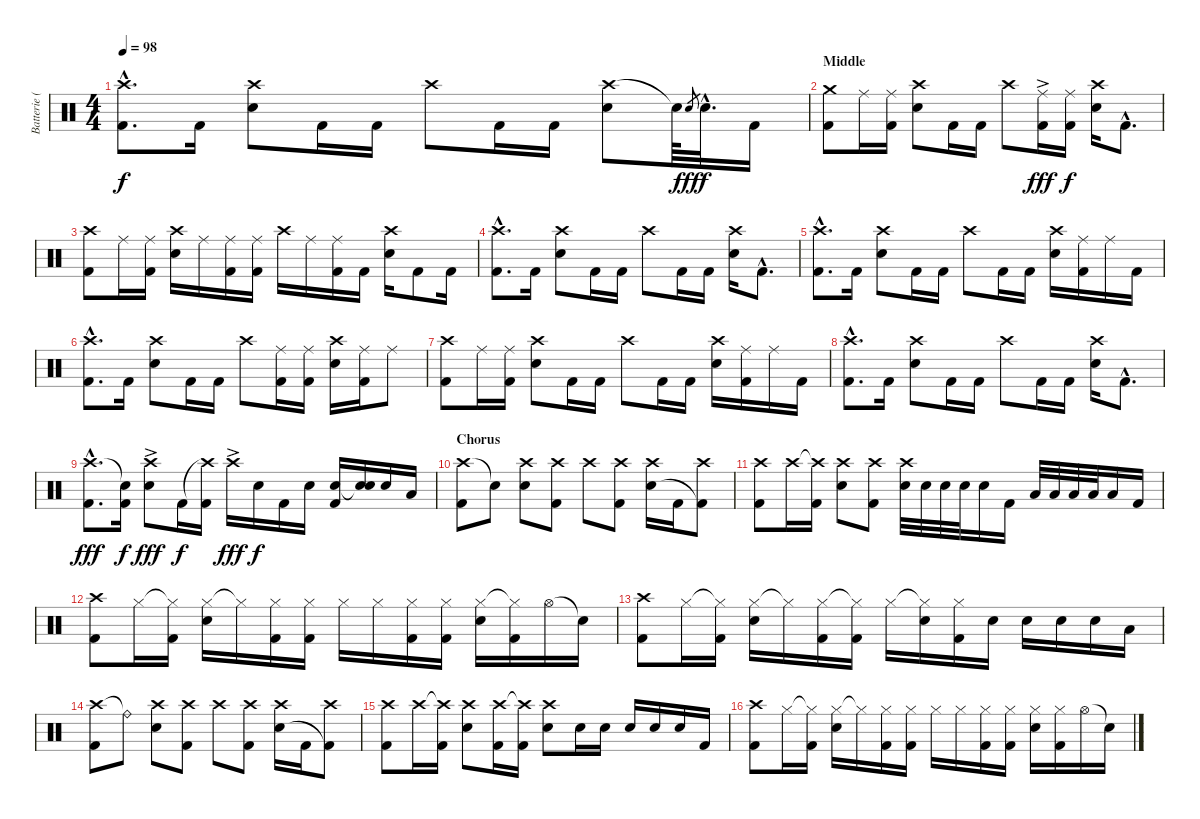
\track ("Batterie (Alfredo Hernandez)" "Batterie (") {instrument percussion}
\staff {score}
\articulation defaults
\ts (4 4)
\tempo 98
\clef neutral
\ks c
("Crash high (hit)"{hac} "Kick (hit) 2"{hac}).8{d dy f} "Kick (hit) 2".16 ("Crash high (hit)" "Electric Snare (hit)").8 "Kick (hit) 2".16 "Kick (hit) 2".16 "Crash high (hit)".8 "Kick (hit) 2".16 "Kick (hit) 2".16 ("Crash high (hit)" "Electric Snare (hit)").8 "Snare (hit)"{t}.64 "Electric Snare (hit)".8{gr dy fff} "Electric Snare (hit)"{hac}.32{d dy f} "Kick (hit) 2".16 |
\section ("" "Middle")
("Crash medium (hit)" "Kick (hit) 2").8 "Ride (middle)".16 ("Ride (middle)" "Kick (hit) 2").16 ("Crash high (hit)" "Electric Snare (hit)").8 "Kick (hit) 2".16 "Kick (hit) 2".16 "Crash high (hit)".8 ("Ride (middle)"{ac} "Kick (hit) 2").16{dy fff} ("Ride (middle)" "Kick (hit) 2").16{dy f} ("Crash high (hit)" "Electric Snare (hit)").16 "Kick (hit) 2"{hac}.8{d} |
("Crash high (hit)" "Kick (hit) 2").8 "Ride (middle)".16 ("Ride (middle)" "Kick (hit) 2").16 ("Crash high (hit)" "Electric Snare (hit)").16 "Ride (middle)".16 ("Ride (middle)" "Kick (hit) 2").16 ("Ride (middle)" "Kick (hit) 2").16 "Crash high (hit)".16 "Ride (middle)".16 ("Ride (middle)" "Kick (hit) 2").16 "Kick (hit) 2".16 ("Crash high (hit)" "Electric Snare (hit)").16 "Kick (hit) 2".8 "Kick (hit) 2".16 |
("Crash high (hit)"{hac} "Kick (hit) 2"{hac}).8{d} "Kick (hit) 2".16 ("Crash high (hit)" "Electric Snare (hit)").8 "Kick (hit) 2".16 "Kick (hit) 2".16 "Crash high (hit)".8 "Kick (hit) 2".16 "Kick (hit) 2".16 ("Crash high (hit)" "Electric Snare (hit)").16 "Kick (hit) 2"{hac}.8{d} |
("Crash high (hit)"{hac} "Kick (hit) 2"{hac}).8{d} "Kick (hit) 2".16 ("Crash high (hit)" "Electric Snare (hit)").8 "Kick (hit) 2".16 "Kick (hit) 2".16 "Crash high (hit)".8 "Kick (hit) 2".16 "Kick (hit) 2".16 ("Crash high (hit)" "Electric Snare (hit)").16 ("Ride (middle)" "Kick (hit) 2").16 "Ride (middle)".16 "Kick (hit) 2".16 |
("Crash high (hit)"{hac} "Kick (hit) 2"{hac}).8{d} "Kick (hit) 2".16 ("Crash high (hit)" "Electric Snare (hit)").8 "Kick (hit) 2".16 "Kick (hit) 2".16 "Crash high (hit)".8 ("Ride (middle)" "Kick (hit) 2").16 ("Ride (middle)" "Kick (hit) 2").16 ("Crash high (hit)" "Electric Snare (hit)").16 ("Ride (middle)" "Kick (hit) 2").16 "Ride (middle)".8 |
("Crash high (hit)" "Kick (hit) 2").8 "Ride (middle)".16 ("Ride (middle)" "Kick (hit) 2").16 ("Crash high (hit)" "Electric Snare (hit)").8 "Kick (hit) 2".16 "Kick (hit) 2".16 "Crash high (hit)".8 "Kick (hit) 2".16 "Kick (hit) 2".16 ("Crash high (hit)" "Electric Snare (hit)").16 ("Ride (middle)" "Kick (hit) 2").16 "Ride (middle)".16 "Kick (hit) 2".16 |
("Crash high (hit)"{hac} "Kick (hit) 2"{hac}).8{d} "Kick (hit) 2".16 ("Crash high (hit)" "Electric Snare (hit)").8 "Kick (hit) 2".16 "Kick (hit) 2".16 "Crash high (hit)".8 "Kick (hit) 2".16 "Kick (hit) 2".16 ("Crash high (hit)" "Electric Snare (hit)").16 "Kick (hit) 2"{hac}.8{d} |
("Crash high (hit)"{hac} "Kick (hit) 2"{hac}).8{d dy fff} ("Snare (hit)"{t} "Kick (hit) 2").16{dy f} ("Crash high (hit)"{ac} "Electric Snare (hit)").8{dy fff} "Kick (hit) 2".16{dy f} ("Crash high (hit)"{t} "Kick (hit) 2").16 "Crash high (hit)"{ac}.16{dy fff} "Electric Snare (hit)".16{dy f} "Kick (hit) 2".16 "Electric Snare (hit)".16 ("Electric Snare (hit)" "Kick (hit) 2").16 ("Snare (hit)"{t} "Electric Snare (hit)").16 "Electric Snare (hit)".16 "Low Floor Tom (hit)".16 |
\section ("" "Chorus")
("Crash high (hit)" "Kick (hit) 2").8 "Snare (hit)"{t}.8 ("Crash high (hit)" "Electric Snare (hit)").8 ("Crash high (hit)" "Kick (hit) 2").8 "Crash high (hit)".8 ("Crash high (hit)" "Kick (hit) 2").8 ("Crash high (hit)" "Electric Snare (hit)").16 "Kick (hit) 2".16 ("Crash high (hit)" "Kick (hit) 2"{t}).8 |
("Crash high (hit)" "Kick (hit) 2").8 "Crash high (hit)".16 ("Crash high (hit)"{t} "Kick (hit) 2").16 ("Crash high (hit)" "Electric Snare (hit)").8 ("Crash high (hit)" "Kick (hit) 2").8 ("Crash high (hit)" "Electric Snare (hit)").32 "Electric Snare (hit)".32 "Electric Snare (hit)".32 "Electric Snare (hit)".32 "Electric Snare (hit)".16 "Kick (hit) 2".16 "Low Floor Tom (hit)".32 "Low Floor Tom (hit)".32 "Low Floor Tom (hit)".32 "Low Floor Tom (hit)".32 "Low Floor Tom (hit)".16 "Kick (hit) 2".16 |
("Crash high (hit)" "Kick (hit) 2").8 "Hi-Hat (closed)".16 ("Hi-Hat (closed)"{t} "Kick (hit) 2").16 ("Hi-Hat (closed)" "Electric Snare (hit)").16 "Hi-Hat (closed)"{t}.16 ("Hi-Hat (closed)" "Kick (hit) 2").16 ("Hi-Hat (closed)" "Kick (hit) 2").16 "Hi-Hat (closed)".16 "Hi-Hat (closed)".16 ("Hi-Hat (closed)" "Kick (hit) 2").16 ("Hi-Hat (closed)" "Kick (hit) 2").16 ("Hi-Hat (closed)" "Electric Snare (hit)").16 ("Hi-Hat (closed)"{t} "Kick (hit) 2").16 "Hi-Hat (open)".16 "Snare (hit)"{t}.16 |
("Crash high (hit)" "Kick (hit) 2").8 "Hi-Hat (closed)".16 ("Hi-Hat (closed)"{t} "Kick (hit) 2").16 ("Hi-Hat (closed)" "Electric Snare (hit)").16 "Hi-Hat (closed)"{t}.16 ("Hi-Hat (closed)" "Kick (hit) 2").16 ("Hi-Hat (closed)"{t} "Kick (hit) 2").16 "Hi-Hat (closed)".16 ("Hi-Hat (closed)"{t} "Electric Snare (hit)").16 ("Hi-Hat (closed)" "Kick (hit) 2").16 "Electric Snare (hit)".16 "Electric Snare (hit)".16 "Electric Snare (hit)".16 "Electric Snare (hit)".16 "Low Floor Tom (hit)".16 |
("Crash high (hit)" "Kick (hit) 2").8 "Ride (bell)"{t}.8 ("Crash high (hit)" "Electric Snare (hit)").8 ("Crash high (hit)" "Kick (hit) 2").8 "Crash high (hit)".8 ("Crash high (hit)" "Kick (hit) 2").8 ("Crash high (hit)" "Electric Snare (hit)").16 "Kick (hit) 2".16 ("Crash high (hit)" "Kick (hit) 2"{t}).8 |
("Crash high (hit)" "Kick (hit) 2").8 "Crash high (hit)".16 ("Crash high (hit)"{t} "Kick (hit) 2").16 ("Crash high (hit)" "Electric Snare (hit)").8 ("Crash high (hit)" "Kick (hit) 2").16 ("Crash high (hit)"{t} "Kick (hit) 2").16 ("Crash high (hit)" "Electric Snare (hit)").8 "Electric Snare (hit)".16 "Electric Snare (hit)".16 "Electric Snare (hit)".16 "Electric Snare (hit)".16 "Electric Snare (hit)".16 "Kick (hit) 2".16 |
("Crash high (hit)" "Kick (hit) 2").8 "Hi-Hat (closed)".16 ("Hi-Hat (closed)"{t} "Kick (hit) 2").16 ("Hi-Hat (closed)" "Electric Snare (hit)").16 "Hi-Hat (closed)"{t}.16 ("Hi-Hat (closed)" "Kick (hit) 2").16 ("Hi-Hat (closed)" "Kick (hit) 2").16 "Hi-Hat (closed)".16 "Hi-Hat (closed)".16 ("Hi-Hat (closed)" "Kick (hit) 2").16 ("Hi-Hat (closed)" "Kick (hit) 2").16 ("Hi-Hat (closed)" "Electric Snare (hit)").16 ("Hi-Hat (closed)" "Kick (hit) 2").16 "Hi-Hat (open)".16 "Snare (hit)"{t}.16
